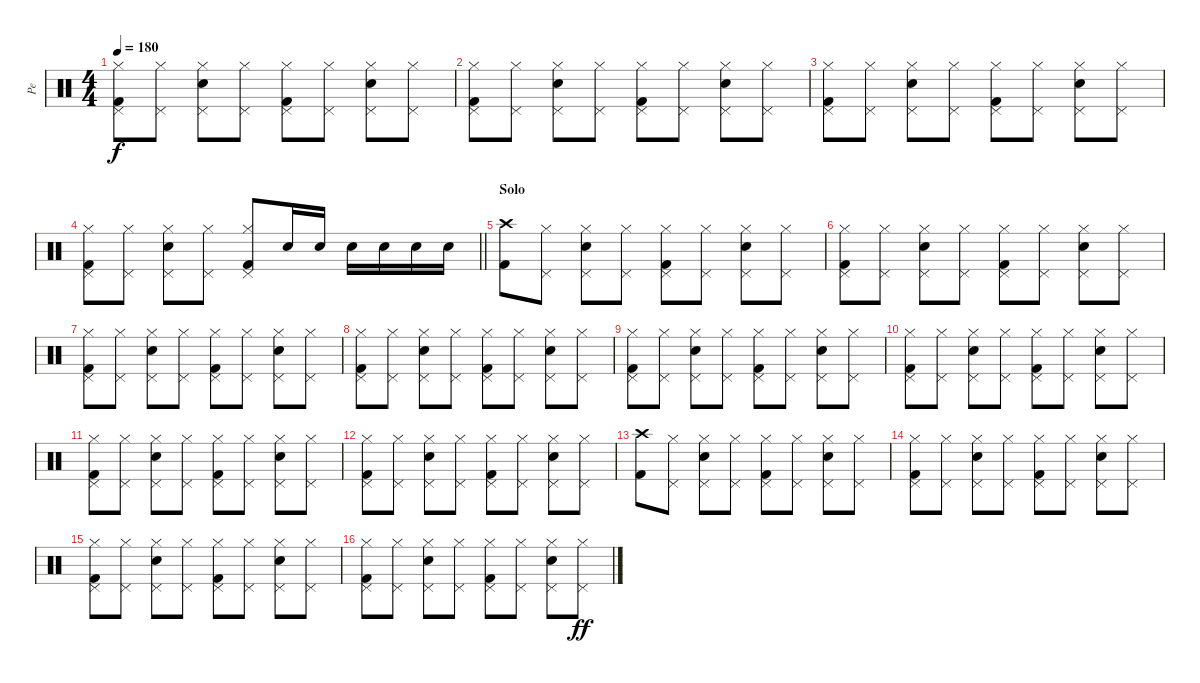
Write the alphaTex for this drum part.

\track ("Pe" "Pe") {instrument percussion}
\staff {score}
\articulation defaults
\ts (4 4)
\tempo 180
\clef neutral
\ks c
("Kick (hit) 2" "Hi-Hat (closed)" "Pedal Hi-Hat (hit)").8{dy f} ("Hi-Hat (closed)" "Pedal Hi-Hat (hit)").8 ("Electric Snare (hit)" "Hi-Hat (closed)" "Pedal Hi-Hat (hit)").8 ("Hi-Hat (closed)" "Pedal Hi-Hat (hit)").8 ("Kick (hit) 2" "Hi-Hat (closed)" "Pedal Hi-Hat (hit)").8 ("Hi-Hat (closed)" "Pedal Hi-Hat (hit)").8 ("Electric Snare (hit)" "Hi-Hat (closed)" "Pedal Hi-Hat (hit)").8 ("Hi-Hat (closed)" "Pedal Hi-Hat (hit)").8 |
("Kick (hit) 2" "Hi-Hat (closed)" "Pedal Hi-Hat (hit)").8 ("Hi-Hat (closed)" "Pedal Hi-Hat (hit)").8 ("Electric Snare (hit)" "Hi-Hat (closed)" "Pedal Hi-Hat (hit)").8 ("Hi-Hat (closed)" "Pedal Hi-Hat (hit)").8 ("Kick (hit) 2" "Hi-Hat (closed)" "Pedal Hi-Hat (hit)").8 ("Hi-Hat (closed)" "Pedal Hi-Hat (hit)").8 ("Electric Snare (hit)" "Hi-Hat (closed)" "Pedal Hi-Hat (hit)").8 ("Hi-Hat (closed)" "Pedal Hi-Hat (hit)").8 |
("Kick (hit) 2" "Hi-Hat (closed)" "Pedal Hi-Hat (hit)").8 ("Hi-Hat (closed)" "Pedal Hi-Hat (hit)").8 ("Electric Snare (hit)" "Hi-Hat (closed)" "Pedal Hi-Hat (hit)").8 ("Hi-Hat (closed)" "Pedal Hi-Hat (hit)").8 ("Kick (hit) 2" "Hi-Hat (closed)" "Pedal Hi-Hat (hit)").8 ("Hi-Hat (closed)" "Pedal Hi-Hat (hit)").8 ("Electric Snare (hit)" "Hi-Hat (closed)" "Pedal Hi-Hat (hit)").8 ("Hi-Hat (closed)" "Pedal Hi-Hat (hit)").8 |
\barLineRight lightlight
("Kick (hit) 2" "Hi-Hat (closed)" "Pedal Hi-Hat (hit)").8 ("Hi-Hat (closed)" "Pedal Hi-Hat (hit)").8 ("Electric Snare (hit)" "Hi-Hat (closed)" "Pedal Hi-Hat (hit)").8 ("Hi-Hat (closed)" "Pedal Hi-Hat (hit)").8 ("Kick (hit) 2" "Hi-Hat (closed)" "Pedal Hi-Hat (hit)").8 "Electric Snare (hit)".16 "Electric Snare (hit)".16 "Electric Snare (hit)".16 "Electric Snare (hit)".16 "Electric Snare (hit)".16 "Electric Snare (hit)".16 |
\section ("" "Solo")
("Kick (hit) 2" "Crash high (hit)").8 ("Hi-Hat (closed)" "Pedal Hi-Hat (hit)").8 ("Electric Snare (hit)" "Hi-Hat (closed)" "Pedal Hi-Hat (hit)").8 ("Hi-Hat (closed)" "Pedal Hi-Hat (hit)").8 ("Kick (hit) 2" "Hi-Hat (closed)" "Pedal Hi-Hat (hit)").8 ("Hi-Hat (closed)" "Pedal Hi-Hat (hit)").8 ("Electric Snare (hit)" "Hi-Hat (closed)" "Pedal Hi-Hat (hit)").8 ("Hi-Hat (closed)" "Pedal Hi-Hat (hit)").8 |
("Kick (hit) 2" "Hi-Hat (closed)" "Pedal Hi-Hat (hit)").8 ("Hi-Hat (closed)" "Pedal Hi-Hat (hit)").8 ("Electric Snare (hit)" "Hi-Hat (closed)" "Pedal Hi-Hat (hit)").8 ("Hi-Hat (closed)" "Pedal Hi-Hat (hit)").8 ("Kick (hit) 2" "Hi-Hat (closed)" "Pedal Hi-Hat (hit)").8 ("Hi-Hat (closed)" "Pedal Hi-Hat (hit)").8 ("Electric Snare (hit)" "Hi-Hat (closed)" "Pedal Hi-Hat (hit)").8 ("Hi-Hat (closed)" "Pedal Hi-Hat (hit)").8 |
("Kick (hit) 2" "Hi-Hat (closed)" "Pedal Hi-Hat (hit)").8 ("Hi-Hat (closed)" "Pedal Hi-Hat (hit)").8 ("Electric Snare (hit)" "Hi-Hat (closed)" "Pedal Hi-Hat (hit)").8 ("Hi-Hat (closed)" "Pedal Hi-Hat (hit)").8 ("Kick (hit) 2" "Hi-Hat (closed)" "Pedal Hi-Hat (hit)").8 ("Hi-Hat (closed)" "Pedal Hi-Hat (hit)").8 ("Electric Snare (hit)" "Hi-Hat (closed)" "Pedal Hi-Hat (hit)").8 ("Hi-Hat (closed)" "Pedal Hi-Hat (hit)").8 |
("Kick (hit) 2" "Hi-Hat (closed)" "Pedal Hi-Hat (hit)").8 ("Hi-Hat (closed)" "Pedal Hi-Hat (hit)").8 ("Electric Snare (hit)" "Hi-Hat (closed)" "Pedal Hi-Hat (hit)").8 ("Hi-Hat (closed)" "Pedal Hi-Hat (hit)").8 ("Kick (hit) 2" "Hi-Hat (closed)" "Pedal Hi-Hat (hit)").8 ("Hi-Hat (closed)" "Pedal Hi-Hat (hit)").8 ("Electric Snare (hit)" "Hi-Hat (closed)" "Pedal Hi-Hat (hit)").8 ("Hi-Hat (closed)" "Pedal Hi-Hat (hit)").8 |
("Kick (hit) 2" "Hi-Hat (closed)" "Pedal Hi-Hat (hit)").8 ("Hi-Hat (closed)" "Pedal Hi-Hat (hit)").8 ("Electric Snare (hit)" "Hi-Hat (closed)" "Pedal Hi-Hat (hit)").8 ("Hi-Hat (closed)" "Pedal Hi-Hat (hit)").8 ("Kick (hit) 2" "Hi-Hat (closed)" "Pedal Hi-Hat (hit)").8 ("Hi-Hat (closed)" "Pedal Hi-Hat (hit)").8 ("Electric Snare (hit)" "Hi-Hat (closed)" "Pedal Hi-Hat (hit)").8 ("Hi-Hat (closed)" "Pedal Hi-Hat (hit)").8 |
("Kick (hit) 2" "Hi-Hat (closed)" "Pedal Hi-Hat (hit)").8 ("Hi-Hat (closed)" "Pedal Hi-Hat (hit)").8 ("Electric Snare (hit)" "Hi-Hat (closed)" "Pedal Hi-Hat (hit)").8 ("Hi-Hat (closed)" "Pedal Hi-Hat (hit)").8 ("Kick (hit) 2" "Hi-Hat (closed)" "Pedal Hi-Hat (hit)").8 ("Hi-Hat (closed)" "Pedal Hi-Hat (hit)").8 ("Electric Snare (hit)" "Hi-Hat (closed)" "Pedal Hi-Hat (hit)").8 ("Hi-Hat (closed)" "Pedal Hi-Hat (hit)").8 |
("Kick (hit) 2" "Hi-Hat (closed)" "Pedal Hi-Hat (hit)").8 ("Hi-Hat (closed)" "Pedal Hi-Hat (hit)").8 ("Electric Snare (hit)" "Hi-Hat (closed)" "Pedal Hi-Hat (hit)").8 ("Hi-Hat (closed)" "Pedal Hi-Hat (hit)").8 ("Kick (hit) 2" "Hi-Hat (closed)" "Pedal Hi-Hat (hit)").8 ("Hi-Hat (closed)" "Pedal Hi-Hat (hit)").8 ("Electric Snare (hit)" "Hi-Hat (closed)" "Pedal Hi-Hat (hit)").8 ("Hi-Hat (closed)" "Pedal Hi-Hat (hit)").8 |
("Kick (hit) 2" "Hi-Hat (closed)" "Pedal Hi-Hat (hit)").8 ("Hi-Hat (closed)" "Pedal Hi-Hat (hit)").8 ("Electric Snare (hit)" "Hi-Hat (closed)" "Pedal Hi-Hat (hit)").8 ("Hi-Hat (closed)" "Pedal Hi-Hat (hit)").8 ("Kick (hit) 2" "Hi-Hat (closed)" "Pedal Hi-Hat (hit)").8 ("Hi-Hat (closed)" "Pedal Hi-Hat (hit)").8 ("Electric Snare (hit)" "Hi-Hat (closed)" "Pedal Hi-Hat (hit)").8 ("Hi-Hat (closed)" "Pedal Hi-Hat (hit)").8 |
("Kick (hit) 2" "Crash high (hit)").8 ("Hi-Hat (closed)" "Pedal Hi-Hat (hit)").8 ("Electric Snare (hit)" "Hi-Hat (closed)" "Pedal Hi-Hat (hit)").8 ("Hi-Hat (closed)" "Pedal Hi-Hat (hit)").8 ("Kick (hit) 2" "Hi-Hat (closed)" "Pedal Hi-Hat (hit)").8 ("Hi-Hat (closed)" "Pedal Hi-Hat (hit)").8 ("Electric Snare (hit)" "Hi-Hat (closed)" "Pedal Hi-Hat (hit)").8 ("Hi-Hat (closed)" "Pedal Hi-Hat (hit)").8 |
("Kick (hit) 2" "Hi-Hat (closed)" "Pedal Hi-Hat (hit)").8 ("Hi-Hat (closed)" "Pedal Hi-Hat (hit)").8 ("Electric Snare (hit)" "Hi-Hat (closed)" "Pedal Hi-Hat (hit)").8 ("Hi-Hat (closed)" "Pedal Hi-Hat (hit)").8 ("Kick (hit) 2" "Hi-Hat (closed)" "Pedal Hi-Hat (hit)").8 ("Hi-Hat (closed)" "Pedal Hi-Hat (hit)").8 ("Electric Snare (hit)" "Hi-Hat (closed)" "Pedal Hi-Hat (hit)").8 ("Hi-Hat (closed)" "Pedal Hi-Hat (hit)").8 |
("Kick (hit) 2" "Hi-Hat (closed)" "Pedal Hi-Hat (hit)").8 ("Hi-Hat (closed)" "Pedal Hi-Hat (hit)").8 ("Electric Snare (hit)" "Hi-Hat (closed)" "Pedal Hi-Hat (hit)").8 ("Hi-Hat (closed)" "Pedal Hi-Hat (hit)").8 ("Kick (hit) 2" "Hi-Hat (closed)" "Pedal Hi-Hat (hit)").8 ("Hi-Hat (closed)" "Pedal Hi-Hat (hit)").8 ("Electric Snare (hit)" "Hi-Hat (closed)" "Pedal Hi-Hat (hit)").8 ("Hi-Hat (closed)" "Pedal Hi-Hat (hit)").8 |
("Kick (hit) 2" "Hi-Hat (closed)" "Pedal Hi-Hat (hit)").8 ("Hi-Hat (closed)" "Pedal Hi-Hat (hit)").8 ("Electric Snare (hit)" "Hi-Hat (closed)" "Pedal Hi-Hat (hit)").8 ("Hi-Hat (closed)" "Pedal Hi-Hat (hit)").8 ("Kick (hit) 2" "Hi-Hat (closed)" "Pedal Hi-Hat (hit)").8 ("Hi-Hat (closed)" "Pedal Hi-Hat (hit)").8 ("Electric Snare (hit)" "Hi-Hat (closed)" "Pedal Hi-Hat (hit)").8 ("Hi-Hat (closed)" "Pedal Hi-Hat (hit)").8{dy ff}
